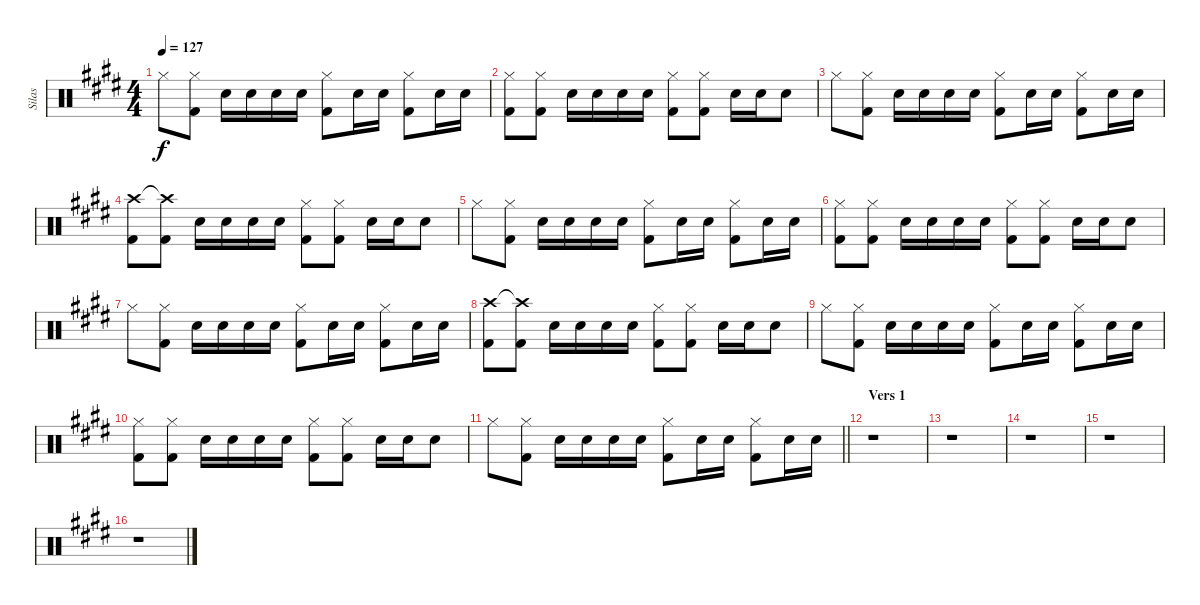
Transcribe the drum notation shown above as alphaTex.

\track ("Silas" "Silas") {instrument percussion}
\staff {score}
\articulation defaults
\ts (4 4)
\tempo 127
\clef neutral
\ks e "Hi-Hat (closed)".8{dy f}
("Hi-Hat (closed)" "Kick (hit) 2").8 "Snare (hit) 2".16 "Snare (hit) 2".16 "Snare (hit) 2".16 "Snare (hit) 2".16 ("Hi-Hat (closed)" "Kick (hit) 2").8 "Snare (hit) 2".16 "Snare (hit) 2".16 ("Hi-Hat (closed)" "Kick (hit) 2").8 "Snare (hit) 2".16 "Snare (hit) 2".16 |
("Hi-Hat (closed)" "Kick (hit) 2").8 ("Hi-Hat (closed)" "Kick (hit) 2").8 "Snare (hit) 2".16 "Snare (hit) 2".16 "Snare (hit) 2".16 "Snare (hit) 2".16 ("Hi-Hat (closed)" "Kick (hit) 2").8 ("Hi-Hat (closed)" "Kick (hit) 2").8 "Snare (hit) 2".16 "Snare (hit) 2".16 "Snare (hit) 2".8 |
"Hi-Hat (closed)".8 ("Hi-Hat (closed)" "Kick (hit) 2").8 "Snare (hit) 2".16 "Snare (hit) 2".16 "Snare (hit) 2".16 "Snare (hit) 2".16 ("Hi-Hat (closed)" "Kick (hit) 2").8 "Snare (hit) 2".16 "Snare (hit) 2".16 ("Hi-Hat (closed)" "Kick (hit) 2").8 "Snare (hit) 2".16 "Snare (hit) 2".16 |
("Crash high (hit)" "Kick (hit) 2").8 ("Crash high (hit)"{t} "Kick (hit) 2").8 "Snare (hit) 2".16 "Snare (hit) 2".16 "Snare (hit) 2".16 "Snare (hit) 2".16 ("Hi-Hat (closed)" "Kick (hit) 2").8 ("Hi-Hat (closed)" "Kick (hit) 2").8 "Snare (hit) 2".16 "Snare (hit) 2".16 "Snare (hit) 2".8 |
"Hi-Hat (closed)".8 ("Hi-Hat (closed)" "Kick (hit) 2").8 "Snare (hit) 2".16 "Snare (hit) 2".16 "Snare (hit) 2".16 "Snare (hit) 2".16 ("Hi-Hat (closed)" "Kick (hit) 2").8 "Snare (hit) 2".16 "Snare (hit) 2".16 ("Hi-Hat (closed)" "Kick (hit) 2").8 "Snare (hit) 2".16 "Snare (hit) 2".16 |
("Hi-Hat (closed)" "Kick (hit) 2").8 ("Hi-Hat (closed)" "Kick (hit) 2").8 "Snare (hit) 2".16 "Snare (hit) 2".16 "Snare (hit) 2".16 "Snare (hit) 2".16 ("Hi-Hat (closed)" "Kick (hit) 2").8 ("Hi-Hat (closed)" "Kick (hit) 2").8 "Snare (hit) 2".16 "Snare (hit) 2".16 "Snare (hit) 2".8 |
"Hi-Hat (closed)".8 ("Hi-Hat (closed)" "Kick (hit) 2").8 "Snare (hit) 2".16 "Snare (hit) 2".16 "Snare (hit) 2".16 "Snare (hit) 2".16 ("Hi-Hat (closed)" "Kick (hit) 2").8 "Snare (hit) 2".16 "Snare (hit) 2".16 ("Hi-Hat (closed)" "Kick (hit) 2").8 "Snare (hit) 2".16 "Snare (hit) 2".16 |
("Crash high (hit)" "Kick (hit) 2").8 ("Crash high (hit)"{t} "Kick (hit) 2").8 "Snare (hit) 2".16 "Snare (hit) 2".16 "Snare (hit) 2".16 "Snare (hit) 2".16 ("Hi-Hat (closed)" "Kick (hit) 2").8 ("Hi-Hat (closed)" "Kick (hit) 2").8 "Snare (hit) 2".16 "Snare (hit) 2".16 "Snare (hit) 2".8 |
"Hi-Hat (closed)".8 ("Hi-Hat (closed)" "Kick (hit) 2").8 "Snare (hit) 2".16 "Snare (hit) 2".16 "Snare (hit) 2".16 "Snare (hit) 2".16 ("Hi-Hat (closed)" "Kick (hit) 2").8 "Snare (hit) 2".16 "Snare (hit) 2".16 ("Hi-Hat (closed)" "Kick (hit) 2").8 "Snare (hit) 2".16 "Snare (hit) 2".16 |
("Hi-Hat (closed)" "Kick (hit) 2").8 ("Hi-Hat (closed)" "Kick (hit) 2").8 "Snare (hit) 2".16 "Snare (hit) 2".16 "Snare (hit) 2".16 "Snare (hit) 2".16 ("Hi-Hat (closed)" "Kick (hit) 2").8 ("Hi-Hat (closed)" "Kick (hit) 2").8 "Snare (hit) 2".16 "Snare (hit) 2".16 "Snare (hit) 2".8 |
\barLineRight lightlight "Hi-Hat (closed)".8
("Hi-Hat (closed)" "Kick (hit) 2").8 "Snare (hit) 2".16 "Snare (hit) 2".16 "Snare (hit) 2".16 "Snare (hit) 2".16 ("Hi-Hat (closed)" "Kick (hit) 2").8 "Snare (hit) 2".16 "Snare (hit) 2".16 ("Hi-Hat (closed)" "Kick (hit) 2").8 "Snare (hit) 2".16 "Snare (hit) 2".16 |
\section ("" "Vers 1")
r.1 |
r.1 |
r.1 |
r.1 |
r.1
